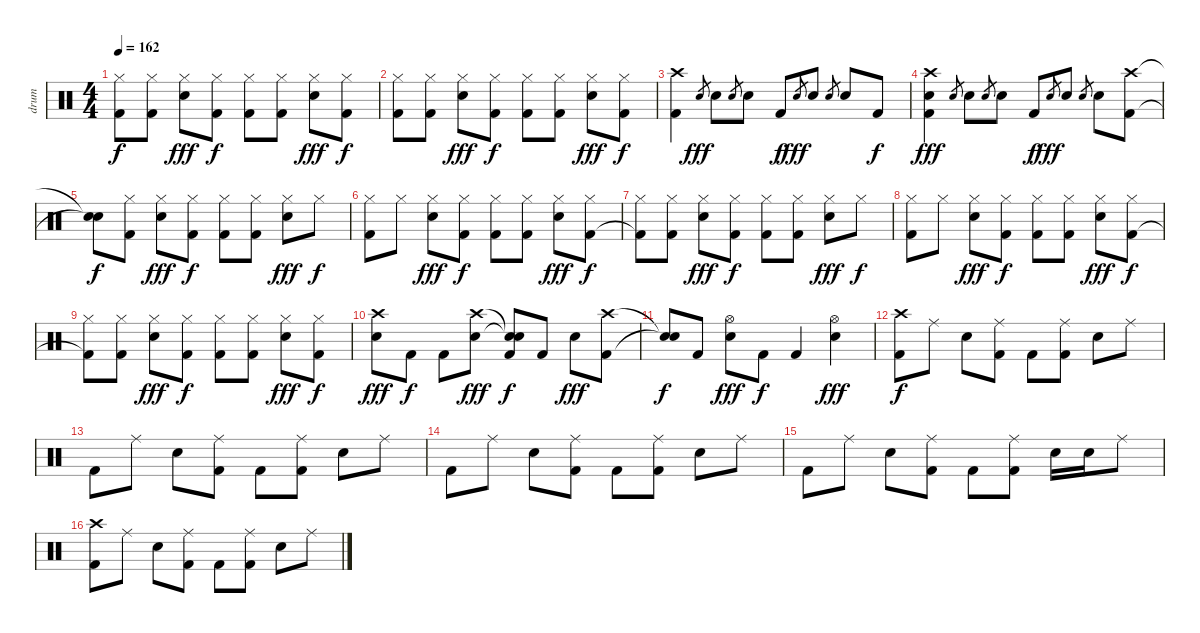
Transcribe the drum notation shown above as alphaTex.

\track ("drum" "drum") {instrument percussion}
\staff {score}
\articulation defaults
\ts (4 4)
\tempo 162
\clef neutral
\ks c
("Hi-Hat (closed)" "Kick (hit) 2").8{dy f} ("Hi-Hat (closed)" "Kick (hit) 2").8 ("Hi-Hat (closed)" "Electric Snare (hit)").8{dy fff} ("Hi-Hat (closed)" "Kick (hit) 2").8{dy f} ("Hi-Hat (closed)" "Kick (hit) 2").8 ("Hi-Hat (closed)" "Kick (hit) 2").8 ("Hi-Hat (closed)" "Electric Snare (hit)").8{dy fff} ("Hi-Hat (closed)" "Kick (hit) 2").8{dy f} |
("Hi-Hat (closed)" "Kick (hit) 2").8 ("Hi-Hat (closed)" "Kick (hit) 2").8 ("Hi-Hat (closed)" "Electric Snare (hit)").8{dy fff} ("Hi-Hat (closed)" "Kick (hit) 2").8{dy f} ("Hi-Hat (closed)" "Kick (hit) 2").8 ("Hi-Hat (closed)" "Kick (hit) 2").8 ("Hi-Hat (closed)" "Electric Snare (hit)").8{dy fff} ("Hi-Hat (closed)" "Kick (hit) 2").8{dy f} |
("Crash high (hit)" "Kick (hit) 2").4 "Electric Snare (hit)".8{gr dy fff} "Electric Snare (hit)".8 "Electric Snare (hit)".8{gr} "Electric Snare (hit)".8 "Kick (hit) 2".8{dy f} "Electric Snare (hit)".8{gr dy fff} "Electric Snare (hit)".8 "Electric Snare (hit)".8{gr} "Electric Snare (hit)".8 "Kick (hit) 2".8{dy f} |
("Crash high (hit)" "Electric Snare (hit)" "Kick (hit) 2").4{dy fff} "Electric Snare (hit)".8{gr} "Electric Snare (hit)".8 "Electric Snare (hit)".8{gr} "Electric Snare (hit)".8 "Kick (hit) 2".8{dy f} "Electric Snare (hit)".8{gr dy fff} "Electric Snare (hit)".8 "Electric Snare (hit)".8{gr} "Electric Snare (hit)".8 ("Crash high (hit)" "Kick (hit) 2").8 |
("Snare (hit)"{t} "Snare (hit)"{t}).8{dy f} ("Hi-Hat (closed)" "Kick (hit) 2").8 ("Hi-Hat (closed)" "Electric Snare (hit)").8{dy fff} ("Hi-Hat (closed)" "Kick (hit) 2").8{dy f} ("Hi-Hat (closed)" "Kick (hit) 2").8 ("Hi-Hat (closed)" "Kick (hit) 2").8 ("Hi-Hat (closed)" "Electric Snare (hit)").8{dy fff} "Hi-Hat (closed)".8{dy f} |
("Hi-Hat (closed)" "Kick (hit) 2").8 "Hi-Hat (closed)".8 ("Hi-Hat (closed)" "Electric Snare (hit)").8{dy fff} ("Hi-Hat (closed)" "Kick (hit) 2").8{dy f} ("Hi-Hat (closed)" "Kick (hit) 2").8 ("Hi-Hat (closed)" "Kick (hit) 2").8 ("Hi-Hat (closed)" "Electric Snare (hit)").8{dy fff} ("Hi-Hat (closed)" "Kick (hit) 2").8{dy f} |
("Hi-Hat (closed)" "Kick (hit) 2"{t}).8 ("Hi-Hat (closed)" "Kick (hit) 2").8 ("Hi-Hat (closed)" "Electric Snare (hit)").8{dy fff} ("Hi-Hat (closed)" "Kick (hit) 2").8{dy f} ("Hi-Hat (closed)" "Kick (hit) 2").8 ("Hi-Hat (closed)" "Kick (hit) 2").8 ("Hi-Hat (closed)" "Electric Snare (hit)").8{dy fff} "Hi-Hat (closed)".8{dy f} |
("Hi-Hat (closed)" "Kick (hit) 2").8 "Hi-Hat (closed)".8 ("Hi-Hat (closed)" "Electric Snare (hit)").8{dy fff} ("Hi-Hat (closed)" "Kick (hit) 2").8{dy f} ("Hi-Hat (closed)" "Kick (hit) 2").8 ("Hi-Hat (closed)" "Kick (hit) 2").8 ("Hi-Hat (closed)" "Electric Snare (hit)").8{dy fff} ("Hi-Hat (closed)" "Kick (hit) 2").8{dy f} |
("Hi-Hat (closed)" "Kick (hit) 2"{t}).8 ("Hi-Hat (closed)" "Kick (hit) 2").8 ("Hi-Hat (closed)" "Electric Snare (hit)").8{dy fff} ("Hi-Hat (closed)" "Kick (hit) 2").8{dy f} ("Hi-Hat (closed)" "Kick (hit) 2").8 ("Hi-Hat (closed)" "Kick (hit) 2").8 ("Hi-Hat (closed)" "Electric Snare (hit)").8{dy fff} ("Hi-Hat (closed)" "Kick (hit) 2").8{dy f} |
("Crash high (hit)" "Electric Snare (hit)").8{dy fff} "Kick (hit) 2".8{dy f} "Kick (hit) 2".8 ("Crash high (hit)" "Electric Snare (hit)").8{dy fff} ("Snare (hit)"{t} "Snare (hit)"{t} "Kick (hit) 2").8{dy f} "Kick (hit) 2".8 "Electric Snare (hit)".8{dy fff} ("Crash high (hit)" "Kick (hit) 2").8 |
("Snare (hit)"{t} "Snare (hit)"{t}).8{dy f} "Kick (hit) 2".8 ("Hi-Hat (open)" "Electric Snare (hit)").8{dy fff} "Kick (hit) 2".8{dy f} "Kick (hit) 2".4 ("Hi-Hat (open)" "Electric Snare (hit)").4{dy fff} |
("Crash high (hit)" "Kick (hit) 2").8{dy f} "Ride (middle)".8 "Electric Snare (hit)".8 ("Ride (middle)" "Kick (hit) 2").8 "Kick (hit) 2".8 ("Ride (middle)" "Kick (hit) 2").8 "Electric Snare (hit)".8 "Ride (middle)".8 |
"Kick (hit) 2".8 "Ride (middle)".8 "Electric Snare (hit)".8 ("Ride (middle)" "Kick (hit) 2").8 "Kick (hit) 2".8 ("Ride (middle)" "Kick (hit) 2").8 "Electric Snare (hit)".8 "Ride (middle)".8 |
"Kick (hit) 2".8 "Ride (middle)".8 "Electric Snare (hit)".8 ("Ride (middle)" "Kick (hit) 2").8 "Kick (hit) 2".8 ("Ride (middle)" "Kick (hit) 2").8 "Electric Snare (hit)".8 "Ride (middle)".8 |
"Kick (hit) 2".8 "Ride (middle)".8 "Electric Snare (hit)".8 ("Ride (middle)" "Kick (hit) 2").8 "Kick (hit) 2".8 ("Ride (middle)" "Kick (hit) 2").8 "Electric Snare (hit)".16 "Electric Snare (hit)".16 "Ride (middle)".8 |
("Crash high (hit)" "Kick (hit) 2").8 "Ride (middle)".8 "Electric Snare (hit)".8 ("Ride (middle)" "Kick (hit) 2").8 "Kick (hit) 2".8 ("Ride (middle)" "Kick (hit) 2").8 "Electric Snare (hit)".8 "Ride (middle)".8
